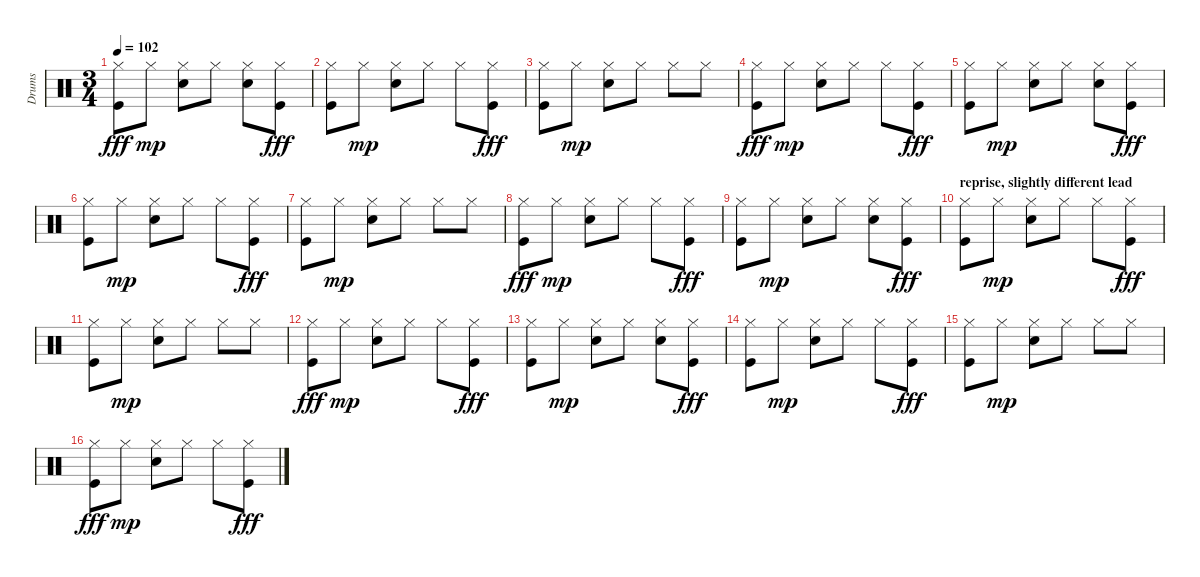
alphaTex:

\track ("Drums" "Drums") {instrument percussion}
\staff {score}
\articulation defaults
\ts (3 4)
\tempo 102
\clef neutral
\ks c
("Hi-Hat (closed)" "Kick (hit)").8{dy fff} "Hi-Hat (closed)".8{dy mp} ("Hi-Hat (closed)" "Snare (hit) 2").8 "Hi-Hat (closed)".8 ("Hi-Hat (closed)" "Snare (hit) 2").8 ("Hi-Hat (closed)" "Kick (hit)").8{dy fff} |
("Hi-Hat (closed)" "Kick (hit)").8 "Hi-Hat (closed)".8{dy mp} ("Hi-Hat (closed)" "Snare (hit) 2").8 "Hi-Hat (closed)".8 "Hi-Hat (closed)".8 ("Hi-Hat (closed)" "Kick (hit)").8{dy fff} |
("Hi-Hat (closed)" "Kick (hit)").8 "Hi-Hat (closed)".8{dy mp} ("Hi-Hat (closed)" "Snare (hit) 2").8 "Hi-Hat (closed)".8 "Hi-Hat (closed)".8 "Hi-Hat (closed)".8 |
("Hi-Hat (closed)" "Kick (hit)").8{dy fff} "Hi-Hat (closed)".8{dy mp} ("Hi-Hat (closed)" "Snare (hit) 2").8 "Hi-Hat (closed)".8 "Hi-Hat (closed)".8 ("Hi-Hat (closed)" "Kick (hit)").8{dy fff} |
("Hi-Hat (closed)" "Kick (hit)").8 "Hi-Hat (closed)".8{dy mp} ("Hi-Hat (closed)" "Snare (hit) 2").8 "Hi-Hat (closed)".8 ("Hi-Hat (closed)" "Snare (hit) 2").8 ("Hi-Hat (closed)" "Kick (hit)").8{dy fff} |
("Hi-Hat (closed)" "Kick (hit)").8 "Hi-Hat (closed)".8{dy mp} ("Hi-Hat (closed)" "Snare (hit) 2").8 "Hi-Hat (closed)".8 "Hi-Hat (closed)".8 ("Hi-Hat (closed)" "Kick (hit)").8{dy fff} |
("Hi-Hat (closed)" "Kick (hit)").8 "Hi-Hat (closed)".8{dy mp} ("Hi-Hat (closed)" "Snare (hit) 2").8 "Hi-Hat (closed)".8 "Hi-Hat (closed)".8 "Hi-Hat (closed)".8 |
("Hi-Hat (closed)" "Kick (hit)").8{dy fff} "Hi-Hat (closed)".8{dy mp} ("Hi-Hat (closed)" "Snare (hit) 2").8 "Hi-Hat (closed)".8 "Hi-Hat (closed)".8 ("Hi-Hat (closed)" "Kick (hit)").8{dy fff} |
("Hi-Hat (closed)" "Kick (hit)").8 "Hi-Hat (closed)".8{dy mp} ("Hi-Hat (closed)" "Snare (hit) 2").8 "Hi-Hat (closed)".8 ("Hi-Hat (closed)" "Snare (hit) 2").8 ("Hi-Hat (closed)" "Kick (hit)").8{dy fff} |
\section ("" "reprise, slightly different lead")
("Hi-Hat (closed)" "Kick (hit)").8 "Hi-Hat (closed)".8{dy mp} ("Hi-Hat (closed)" "Snare (hit) 2").8 "Hi-Hat (closed)".8 "Hi-Hat (closed)".8 ("Hi-Hat (closed)" "Kick (hit)").8{dy fff} |
("Hi-Hat (closed)" "Kick (hit)").8 "Hi-Hat (closed)".8{dy mp} ("Hi-Hat (closed)" "Snare (hit) 2").8 "Hi-Hat (closed)".8 "Hi-Hat (closed)".8 "Hi-Hat (closed)".8 |
("Hi-Hat (closed)" "Kick (hit)").8{dy fff} "Hi-Hat (closed)".8{dy mp} ("Hi-Hat (closed)" "Snare (hit) 2").8 "Hi-Hat (closed)".8 "Hi-Hat (closed)".8 ("Hi-Hat (closed)" "Kick (hit)").8{dy fff} |
("Hi-Hat (closed)" "Kick (hit)").8 "Hi-Hat (closed)".8{dy mp} ("Hi-Hat (closed)" "Snare (hit) 2").8 "Hi-Hat (closed)".8 ("Hi-Hat (closed)" "Snare (hit) 2").8 ("Hi-Hat (closed)" "Kick (hit)").8{dy fff} |
("Hi-Hat (closed)" "Kick (hit)").8 "Hi-Hat (closed)".8{dy mp} ("Hi-Hat (closed)" "Snare (hit) 2").8 "Hi-Hat (closed)".8 "Hi-Hat (closed)".8 ("Hi-Hat (closed)" "Kick (hit)").8{dy fff} |
("Hi-Hat (closed)" "Kick (hit)").8 "Hi-Hat (closed)".8{dy mp} ("Hi-Hat (closed)" "Snare (hit) 2").8 "Hi-Hat (closed)".8 "Hi-Hat (closed)".8 "Hi-Hat (closed)".8 |
("Hi-Hat (closed)" "Kick (hit)").8{dy fff} "Hi-Hat (closed)".8{dy mp} ("Hi-Hat (closed)" "Snare (hit) 2").8 "Hi-Hat (closed)".8 "Hi-Hat (closed)".8 ("Hi-Hat (closed)" "Kick (hit)").8{dy fff}
